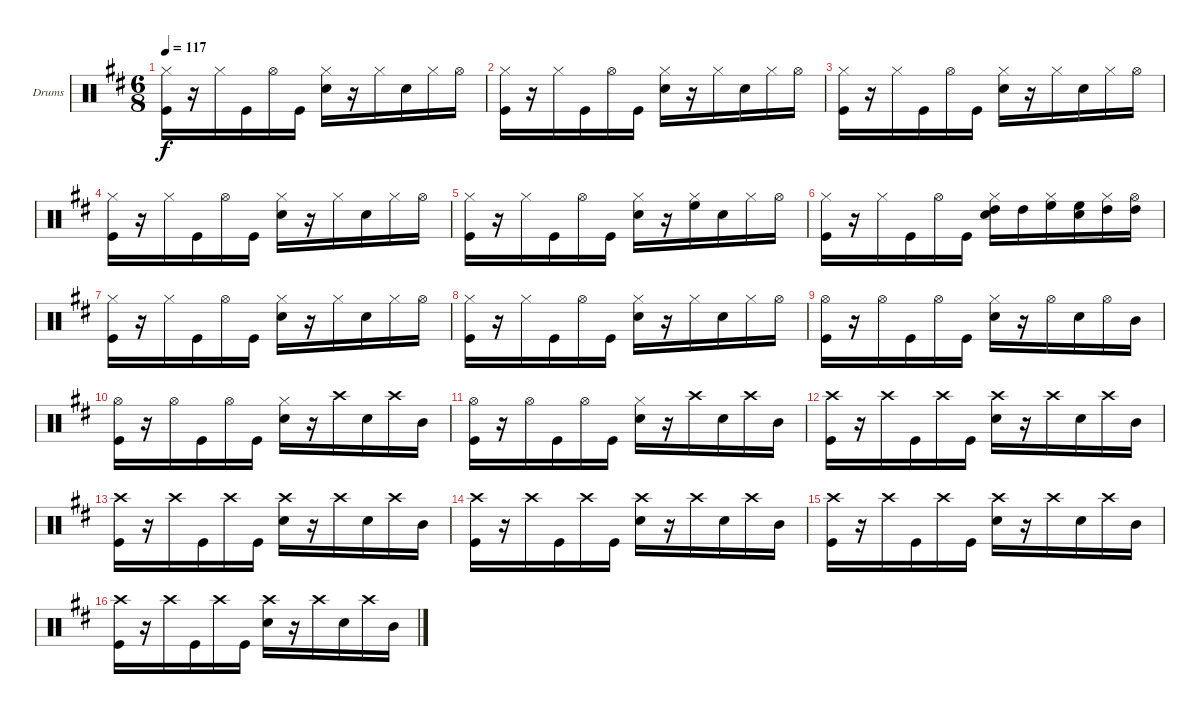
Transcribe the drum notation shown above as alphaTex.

\bracketExtendMode groupsimilarinstruments
\firstSystemTrackNameOrientation horizontal
\otherSystemsTrackNameOrientation horizontal
\track ("Drumkit" "Drums") {instrument percussion}
\staff {score}
\articulation defaults
\ts (6 8)
\tempo 117
\clef neutral
\ks d
("Hi-Hat (closed)" "Kick (hit)").16{dy f} r.16 "Hi-Hat (closed)".16 "Kick (hit)".16 "Hi-Hat (open)".16 "Kick (hit)".16 ("Hi-Hat (closed)" "Snare (hit) 2").16 r.16 "Hi-Hat (closed)".16 "Snare (hit) 2".16 "Hi-Hat (closed)".16 "Hi-Hat (open)".16 |
("Hi-Hat (closed)" "Kick (hit)").16 r.16 "Hi-Hat (closed)".16 "Kick (hit)".16 "Hi-Hat (open)".16 "Kick (hit)".16 ("Hi-Hat (closed)" "Snare (hit) 2").16 r.16 "Hi-Hat (closed)".16 "Snare (hit) 2".16 "Hi-Hat (closed)".16 "Hi-Hat (open)".16 |
("Hi-Hat (closed)" "Kick (hit)").16 r.16 "Hi-Hat (closed)".16 "Kick (hit)".16 "Hi-Hat (open)".16 "Kick (hit)".16 ("Hi-Hat (closed)" "Snare (hit) 2").16 r.16 "Hi-Hat (closed)".16 "Snare (hit) 2".16 "Hi-Hat (closed)".16 "Hi-Hat (open)".16 |
("Hi-Hat (closed)" "Kick (hit)").16 r.16 "Hi-Hat (closed)".16 "Kick (hit)".16 "Hi-Hat (open)".16 "Kick (hit)".16 ("Hi-Hat (closed)" "Snare (hit) 2").16 r.16 "Hi-Hat (closed)".16 "Snare (hit) 2".16 "Hi-Hat (closed)".16 "Hi-Hat (open)".16 |
("Hi-Hat (closed)" "Kick (hit)").16 r.16 "Hi-Hat (closed)".16 "Kick (hit)".16 "Hi-Hat (open)".16 "Kick (hit)".16 ("Hi-Hat (closed)" "Snare (hit) 2").16 r.16 ("High Floor Tom (hit)" "Hi-Hat (closed)").16 "Snare (hit) 2".16 "Hi-Hat (closed)".16 "Hi-Hat (open)".16 |
("Hi-Hat (closed)" "Kick (hit)").16 r.16 "Hi-Hat (closed)".16 "Kick (hit)".16 "Hi-Hat (open)".16 "Kick (hit)".16 ("High Tom (hit)" "Hi-Hat (closed)" "Snare (hit) 2").16 "High Tom (hit)".16 ("High Floor Tom (hit)" "Hi-Hat (closed)").16 ("High Floor Tom (hit)" "Snare (hit) 2").16 ("High Tom (hit)" "Hi-Hat (closed)").16 ("High Tom (hit)" "Hi-Hat (open)").16 |
("Hi-Hat (closed)" "Kick (hit)").16 r.16 "Hi-Hat (closed)".16 "Kick (hit)".16 "Hi-Hat (open)".16 "Kick (hit)".16 ("Hi-Hat (closed)" "Snare (hit) 2").16 r.16 "Hi-Hat (closed)".16 "Snare (hit) 2".16 "Hi-Hat (closed)".16 "Hi-Hat (open)".16 |
("Hi-Hat (closed)" "Kick (hit)").16 r.16 "Hi-Hat (closed)".16 "Kick (hit)".16 "Hi-Hat (open)".16 "Kick (hit)".16 ("Hi-Hat (closed)" "Snare (hit) 2").16 r.16 "Hi-Hat (closed)".16 "Snare (hit) 2".16 "Hi-Hat (closed)".16 "Hi-Hat (open)".16 |
("Hi-Hat (open)" "Kick (hit)").16 r.16 "Hi-Hat (open)".16 "Kick (hit)".16 "Hi-Hat (open)".16 "Kick (hit)".16 ("Hi-Hat (closed)" "Snare (hit) 2").16 r.16 "Hi-Hat (open)".16 "Snare (hit) 2".16 "Hi-Hat (open)".16 "Mid Tom (hit)".16 |
("Hi-Hat (open)" "Kick (hit)").16 r.16 "Hi-Hat (open)".16 "Kick (hit)".16 "Hi-Hat (open)".16 "Kick (hit)".16 ("Hi-Hat (closed)" "Snare (hit) 2").16 r.16 "Crash high (hit)".16 "Snare (hit) 2".16 "Crash high (hit)".16 "Mid Tom (hit)".16 |
("Hi-Hat (open)" "Kick (hit)").16 r.16 "Hi-Hat (open)".16 "Kick (hit)".16 "Hi-Hat (open)".16 "Kick (hit)".16 ("Hi-Hat (closed)" "Snare (hit) 2").16 r.16 "Crash high (hit)".16 "Snare (hit) 2".16 "Crash high (hit)".16 "Mid Tom (hit)".16 |
("Crash high (hit)" "Kick (hit)").16 r.16 "Crash high (hit)".16 "Kick (hit)".16 "Crash high (hit)".16 "Kick (hit)".16 ("Crash high (hit)" "Snare (hit) 2").16 r.16 "Crash high (hit)".16 "Snare (hit) 2".16 "Crash high (hit)".16 "Mid Tom (hit)".16 |
("Crash high (hit)" "Kick (hit)").16 r.16 "Crash high (hit)".16 "Kick (hit)".16 "Crash high (hit)".16 "Kick (hit)".16 ("Crash high (hit)" "Snare (hit) 2").16 r.16 "Crash high (hit)".16 "Snare (hit) 2".16 "Crash high (hit)".16 "Mid Tom (hit)".16 |
("Crash high (hit)" "Kick (hit)").16 r.16 "Crash high (hit)".16 "Kick (hit)".16 "Crash high (hit)".16 "Kick (hit)".16 ("Crash high (hit)" "Snare (hit) 2").16 r.16 "Crash high (hit)".16 "Snare (hit) 2".16 "Crash high (hit)".16 "Mid Tom (hit)".16 |
("Crash high (hit)" "Kick (hit)").16 r.16 "Crash high (hit)".16 "Kick (hit)".16 "Crash high (hit)".16 "Kick (hit)".16 ("Crash high (hit)" "Snare (hit) 2").16 r.16 "Crash high (hit)".16 "Snare (hit) 2".16 "Crash high (hit)".16 "Mid Tom (hit)".16 |
("Crash high (hit)" "Kick (hit)").16 r.16 "Crash high (hit)".16 "Kick (hit)".16 "Crash high (hit)".16 "Kick (hit)".16 ("Crash high (hit)" "Snare (hit) 2").16 r.16 "Crash high (hit)".16 "Snare (hit) 2".16 "Crash high (hit)".16 "Mid Tom (hit)".16
